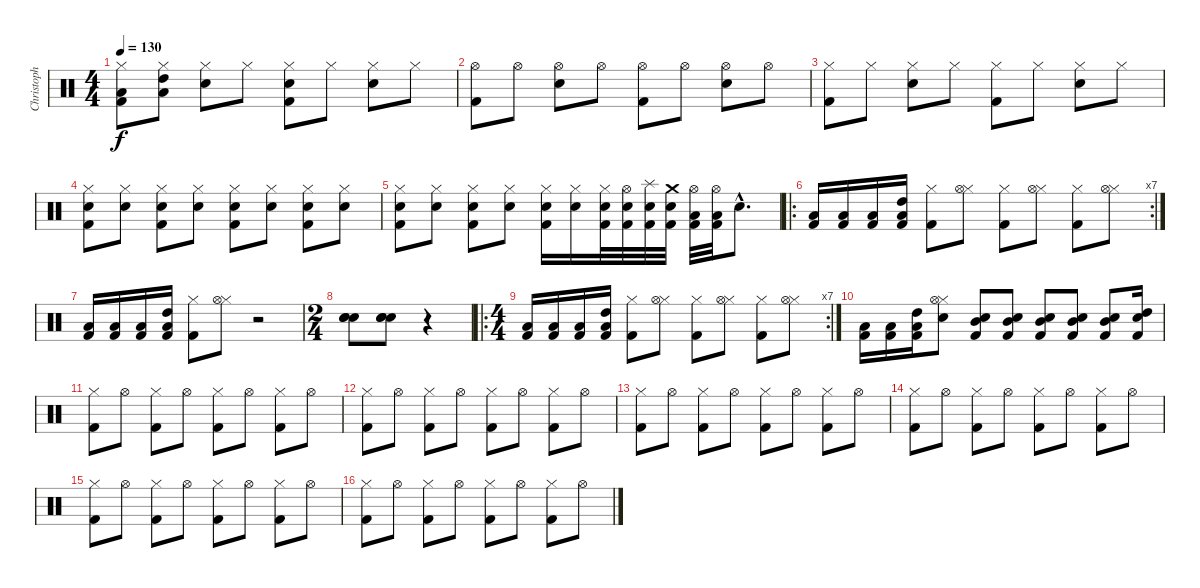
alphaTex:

\track ("Christoph Schneider" "Christoph ") {instrument percussion}
\staff {score}
\articulation defaults
\ts (4 4)
\tempo 130
\clef neutral
\ks c
("Hi-Hat (closed)" "Low Tom (hit)" "Kick (hit) 2").8{dy f} ("Hi-Hat (closed)" "High Tom (hit)" "Low Tom (hit)").8 ("Hi-Hat (closed)" "Electric Snare (hit)").8 "Hi-Hat (closed)".8 ("Hi-Hat (closed)" "Electric Snare (hit)" "Kick (hit) 2").8 "Hi-Hat (closed)".8 ("Hi-Hat (closed)" "Electric Snare (hit)").8 "Hi-Hat (closed)".8 |
("Hi-Hat (open)" "Kick (hit) 2").8 "Hi-Hat (open)".8 ("Hi-Hat (open)" "Electric Snare (hit)").8 "Hi-Hat (open)".8 ("Hi-Hat (open)" "Kick (hit) 2").8 "Hi-Hat (open)".8 ("Hi-Hat (open)" "Electric Snare (hit)").8 "Hi-Hat (open)".8 |
("Hi-Hat (closed)" "Kick (hit) 2").8 "Hi-Hat (closed)".8 ("Hi-Hat (closed)" "Electric Snare (hit)").8 "Hi-Hat (closed)".8 ("Hi-Hat (closed)" "Kick (hit) 2").8 "Hi-Hat (closed)".8 ("Hi-Hat (closed)" "Electric Snare (hit)").8 "Hi-Hat (closed)".8 |
("Hi-Hat (closed)" "Electric Snare (hit)" "Kick (hit) 2").8 ("Hi-Hat (closed)" "Electric Snare (hit)").8 ("Hi-Hat (closed)" "Electric Snare (hit)" "Kick (hit) 2").8 ("Hi-Hat (closed)" "Electric Snare (hit)").8 ("Hi-Hat (closed)" "Electric Snare (hit)" "Kick (hit) 2").8 ("Hi-Hat (closed)" "Electric Snare (hit)").8 ("Hi-Hat (closed)" "Electric Snare (hit)" "Kick (hit) 2").8 ("Hi-Hat (closed)" "Electric Snare (hit)").8 |
("Hi-Hat (closed)" "Electric Snare (hit)" "Kick (hit) 2").8 ("Hi-Hat (closed)" "Electric Snare (hit)").8 ("Hi-Hat (closed)" "Electric Snare (hit)" "Kick (hit) 2").8 ("Hi-Hat (closed)" "Electric Snare (hit)").8 ("Hi-Hat (closed)" "Electric Snare (hit)" "Kick (hit) 2").16 ("Hi-Hat (closed)" "Electric Snare (hit)").16 ("Hi-Hat (closed)" "Electric Snare (hit)" "Kick (hit) 2").32 ("Hi-Hat (open)" "Electric Snare (hit)" "Kick (hit) 2").32 ("Splash (hit)" "Electric Snare (hit)" "Kick (hit) 2").32 ("Crash medium (hit)" "Electric Snare (hit)" "Kick (hit) 2").32 ("Hi-Hat (open)" "Low Tom (hit)" "Kick (hit) 2").32 ("Hi-Hat (open)" "Low Tom (hit)" "Kick (hit) 2").32 "Electric Snare (hit)"{hac}.8{d} |
\ro
\rc 7
("Low Tom (hit)" "Kick (hit) 2").16 ("Low Tom (hit)" "Kick (hit) 2").16 ("Low Tom (hit)" "Kick (hit) 2").16 ("High Tom (hit)" "Low Tom (hit)" "Kick (hit) 2").16 ("Hi-Hat (closed)" "Kick (hit) 2").8 ("Hi-Hat (closed)" "Hi-Hat (open)").8 ("Hi-Hat (closed)" "Kick (hit) 2").8 ("Hi-Hat (closed)" "Hi-Hat (open)").8 ("Hi-Hat (closed)" "Kick (hit) 2").8 ("Hi-Hat (closed)" "Hi-Hat (open)").8 |
("Low Tom (hit)" "Kick (hit) 2").16 ("Low Tom (hit)" "Kick (hit) 2").16 ("Low Tom (hit)" "Kick (hit) 2").16 ("High Tom (hit)" "Low Tom (hit)" "Kick (hit) 2").16 ("Hi-Hat (closed)" "Kick (hit) 2").8 ("Hi-Hat (closed)" "Hi-Hat (open)").8 r.2 |
\ts (2 4)
("Snare (hit)" "Hand Clap (hit)" "Hand Clap (hit)").8 ("Snare (hit)" "Hand Clap (hit)" "Hand Clap (hit)").8 r.4 |
\ro
\rc 7
\ts (4 4)
("Low Tom (hit)" "Kick (hit) 2").16 ("Low Tom (hit)" "Kick (hit) 2").16 ("Low Tom (hit)" "Kick (hit) 2").16 ("High Tom (hit)" "Low Tom (hit)" "Kick (hit) 2").16 ("Hi-Hat (closed)" "Kick (hit) 2").8 ("Hi-Hat (closed)" "Hi-Hat (open)").8 ("Hi-Hat (closed)" "Kick (hit) 2").8 ("Hi-Hat (closed)" "Hi-Hat (open)").8 ("Hi-Hat (closed)" "Kick (hit) 2").8 ("Hi-Hat (closed)" "Hi-Hat (open)").8 |
("Low Tom (hit)" "Kick (hit) 2").16 ("Low Tom (hit)" "Kick (hit) 2").16 ("High Tom (hit)" "Low Tom (hit)" "Kick (hit) 2").16 ("Hi-Hat (closed)" "Hi-Hat (open)" "Electric Snare (hit)").8 ("Mid Tom (hit)" "Electric Snare (hit)" "Kick (hit) 2").8 ("Mid Tom (hit)" "Electric Snare (hit)" "Kick (hit) 2").8 ("Mid Tom (hit)" "Electric Snare (hit)" "Kick (hit) 2").8 ("Mid Tom (hit)" "Electric Snare (hit)" "Kick (hit) 2").8 ("Mid Tom (hit)" "Electric Snare (hit)" "Kick (hit) 2").8 ("High Tom (hit)" "Electric Snare (hit)" "Kick (hit) 2").16 |
("Hi-Hat (closed)" "Kick (hit) 2").8 "Hi-Hat (open)".8 ("Hi-Hat (closed)" "Kick (hit) 2").8 "Hi-Hat (open)".8 ("Hi-Hat (closed)" "Kick (hit) 2").8 "Hi-Hat (open)".8 ("Hi-Hat (closed)" "Kick (hit) 2").8 "Hi-Hat (open)".8 |
("Hi-Hat (closed)" "Kick (hit) 2").8 "Hi-Hat (open)".8 ("Hi-Hat (closed)" "Kick (hit) 2").8 "Hi-Hat (open)".8 ("Hi-Hat (closed)" "Kick (hit) 2").8 "Hi-Hat (open)".8 ("Hi-Hat (closed)" "Kick (hit) 2").8 "Hi-Hat (open)".8 |
("Hi-Hat (closed)" "Kick (hit) 2").8 "Hi-Hat (open)".8 ("Hi-Hat (closed)" "Kick (hit) 2").8 "Hi-Hat (open)".8 ("Hi-Hat (closed)" "Kick (hit) 2").8 "Hi-Hat (open)".8 ("Hi-Hat (closed)" "Kick (hit) 2").8 "Hi-Hat (open)".8 |
("Hi-Hat (closed)" "Kick (hit) 2").8 "Hi-Hat (open)".8 ("Hi-Hat (closed)" "Kick (hit) 2").8 "Hi-Hat (open)".8 ("Hi-Hat (closed)" "Kick (hit) 2").8 "Hi-Hat (open)".8 ("Hi-Hat (closed)" "Kick (hit) 2").8 "Hi-Hat (open)".8 |
("Hi-Hat (closed)" "Kick (hit) 2").8 "Hi-Hat (open)".8 ("Hi-Hat (closed)" "Kick (hit) 2").8 "Hi-Hat (open)".8 ("Hi-Hat (closed)" "Kick (hit) 2").8 "Hi-Hat (open)".8 ("Hi-Hat (closed)" "Kick (hit) 2").8 "Hi-Hat (open)".8 |
("Hi-Hat (closed)" "Kick (hit) 2").8 "Hi-Hat (open)".8 ("Hi-Hat (closed)" "Kick (hit) 2").8 "Hi-Hat (open)".8 ("Hi-Hat (closed)" "Kick (hit) 2").8 "Hi-Hat (open)".8 ("Hi-Hat (closed)" "Kick (hit) 2").8 "Hi-Hat (open)".8
